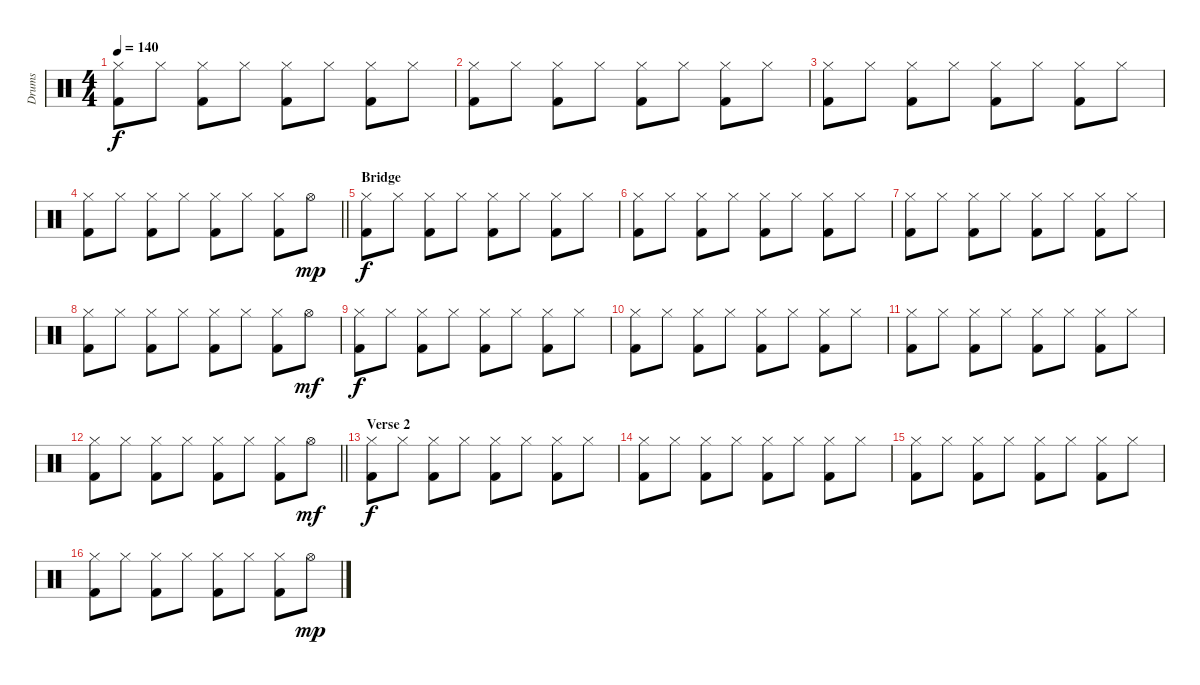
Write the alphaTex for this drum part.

\track ("Drums" "Drums") {instrument percussion}
\staff {score}
\articulation defaults
\ts (4 4)
\tempo 140
\clef neutral
\ks c
("Hi-Hat (closed)" "Kick (hit) 2").8{dy f} "Hi-Hat (closed)".8 ("Hi-Hat (closed)" "Kick (hit) 2").8 "Hi-Hat (closed)".8 ("Hi-Hat (closed)" "Kick (hit) 2").8 "Hi-Hat (closed)".8 ("Hi-Hat (closed)" "Kick (hit) 2").8 "Hi-Hat (closed)".8 |
("Hi-Hat (closed)" "Kick (hit) 2").8 "Hi-Hat (closed)".8 ("Hi-Hat (closed)" "Kick (hit) 2").8 "Hi-Hat (closed)".8 ("Hi-Hat (closed)" "Kick (hit) 2").8 "Hi-Hat (closed)".8 ("Hi-Hat (closed)" "Kick (hit) 2").8 "Hi-Hat (closed)".8 |
("Hi-Hat (closed)" "Kick (hit) 2").8 "Hi-Hat (closed)".8 ("Hi-Hat (closed)" "Kick (hit) 2").8 "Hi-Hat (closed)".8 ("Hi-Hat (closed)" "Kick (hit) 2").8 "Hi-Hat (closed)".8 ("Hi-Hat (closed)" "Kick (hit) 2").8 "Hi-Hat (closed)".8 |
\barLineRight lightlight
("Hi-Hat (closed)" "Kick (hit) 2").8 "Hi-Hat (closed)".8 ("Hi-Hat (closed)" "Kick (hit) 2").8 "Hi-Hat (closed)".8 ("Hi-Hat (closed)" "Kick (hit) 2").8 "Hi-Hat (closed)".8 ("Hi-Hat (closed)" "Kick (hit) 2").8 "Hi-Hat (open)".8{dy mp} |
\section ("" "Bridge")
("Hi-Hat (closed)" "Kick (hit) 2").8{dy f} "Hi-Hat (closed)".8 ("Hi-Hat (closed)" "Kick (hit) 2").8 "Hi-Hat (closed)".8 ("Hi-Hat (closed)" "Kick (hit) 2").8 "Hi-Hat (closed)".8 ("Hi-Hat (closed)" "Kick (hit) 2").8 "Hi-Hat (closed)".8 |
("Hi-Hat (closed)" "Kick (hit) 2").8 "Hi-Hat (closed)".8 ("Hi-Hat (closed)" "Kick (hit) 2").8 "Hi-Hat (closed)".8 ("Hi-Hat (closed)" "Kick (hit) 2").8 "Hi-Hat (closed)".8 ("Hi-Hat (closed)" "Kick (hit) 2").8 "Hi-Hat (closed)".8 |
("Hi-Hat (closed)" "Kick (hit) 2").8 "Hi-Hat (closed)".8 ("Hi-Hat (closed)" "Kick (hit) 2").8 "Hi-Hat (closed)".8 ("Hi-Hat (closed)" "Kick (hit) 2").8 "Hi-Hat (closed)".8 ("Hi-Hat (closed)" "Kick (hit) 2").8 "Hi-Hat (closed)".8 |
("Hi-Hat (closed)" "Kick (hit) 2").8 "Hi-Hat (closed)".8 ("Hi-Hat (closed)" "Kick (hit) 2").8 "Hi-Hat (closed)".8 ("Hi-Hat (closed)" "Kick (hit) 2").8 "Hi-Hat (closed)".8 ("Hi-Hat (closed)" "Kick (hit) 2").8 "Hi-Hat (open)".8{dy mf} |
("Hi-Hat (closed)" "Kick (hit) 2").8{dy f} "Hi-Hat (closed)".8 ("Hi-Hat (closed)" "Kick (hit) 2").8 "Hi-Hat (closed)".8 ("Hi-Hat (closed)" "Kick (hit) 2").8 "Hi-Hat (closed)".8 ("Hi-Hat (closed)" "Kick (hit) 2").8 "Hi-Hat (closed)".8 |
("Hi-Hat (closed)" "Kick (hit) 2").8 "Hi-Hat (closed)".8 ("Hi-Hat (closed)" "Kick (hit) 2").8 "Hi-Hat (closed)".8 ("Hi-Hat (closed)" "Kick (hit) 2").8 "Hi-Hat (closed)".8 ("Hi-Hat (closed)" "Kick (hit) 2").8 "Hi-Hat (closed)".8 |
("Hi-Hat (closed)" "Kick (hit) 2").8 "Hi-Hat (closed)".8 ("Hi-Hat (closed)" "Kick (hit) 2").8 "Hi-Hat (closed)".8 ("Hi-Hat (closed)" "Kick (hit) 2").8 "Hi-Hat (closed)".8 ("Hi-Hat (closed)" "Kick (hit) 2").8 "Hi-Hat (closed)".8 |
\barLineRight lightlight
("Hi-Hat (closed)" "Kick (hit) 2").8 "Hi-Hat (closed)".8 ("Hi-Hat (closed)" "Kick (hit) 2").8 "Hi-Hat (closed)".8 ("Hi-Hat (closed)" "Kick (hit) 2").8 "Hi-Hat (closed)".8 ("Hi-Hat (closed)" "Kick (hit) 2").8 "Hi-Hat (open)".8{dy mf} |
\section ("" "Verse 2")
("Hi-Hat (closed)" "Kick (hit) 2").8{dy f} "Hi-Hat (closed)".8 ("Hi-Hat (closed)" "Kick (hit) 2").8 "Hi-Hat (closed)".8 ("Hi-Hat (closed)" "Kick (hit) 2").8 "Hi-Hat (closed)".8 ("Hi-Hat (closed)" "Kick (hit) 2").8 "Hi-Hat (closed)".8 |
("Hi-Hat (closed)" "Kick (hit) 2").8 "Hi-Hat (closed)".8 ("Hi-Hat (closed)" "Kick (hit) 2").8 "Hi-Hat (closed)".8 ("Hi-Hat (closed)" "Kick (hit) 2").8 "Hi-Hat (closed)".8 ("Hi-Hat (closed)" "Kick (hit) 2").8 "Hi-Hat (closed)".8 |
("Hi-Hat (closed)" "Kick (hit) 2").8 "Hi-Hat (closed)".8 ("Hi-Hat (closed)" "Kick (hit) 2").8 "Hi-Hat (closed)".8 ("Hi-Hat (closed)" "Kick (hit) 2").8 "Hi-Hat (closed)".8 ("Hi-Hat (closed)" "Kick (hit) 2").8 "Hi-Hat (closed)".8 |
("Hi-Hat (closed)" "Kick (hit) 2").8 "Hi-Hat (closed)".8 ("Hi-Hat (closed)" "Kick (hit) 2").8 "Hi-Hat (closed)".8 ("Hi-Hat (closed)" "Kick (hit) 2").8 "Hi-Hat (closed)".8 ("Hi-Hat (closed)" "Kick (hit) 2").8 "Hi-Hat (open)".8{dy mp}
